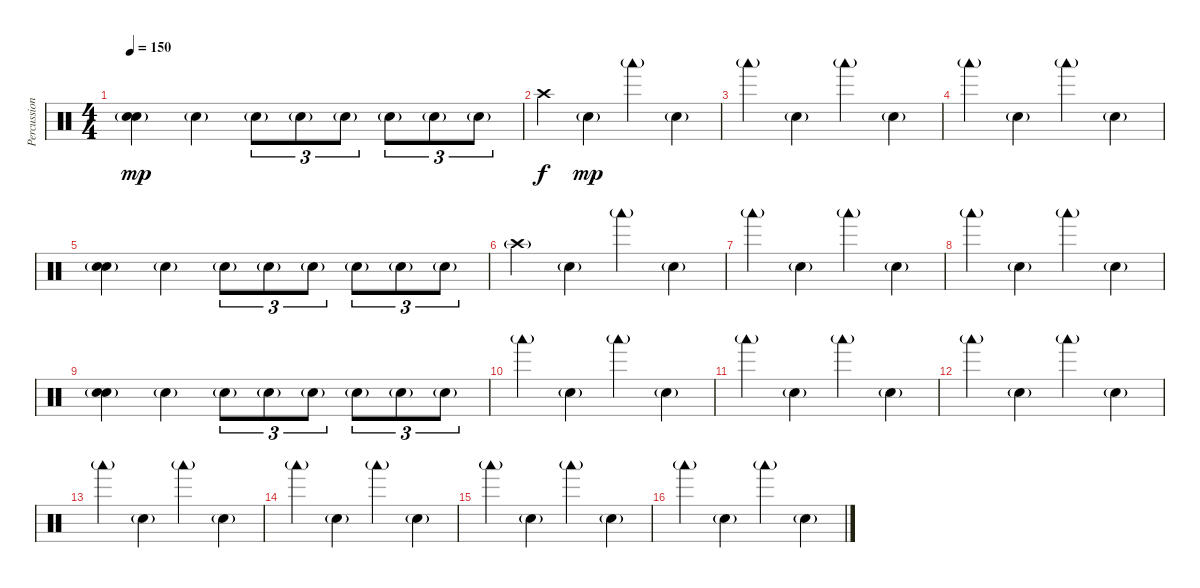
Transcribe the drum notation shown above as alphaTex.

\track ("Percussion" "Percussion") {instrument percussion}
\staff {score}
\articulation defaults
\ts (4 4)
\tempo 150
\clef neutral
\ks c
("Snare (hit) 2" "Snare (hit) 2"{g}).4{dy mp} "Snare (hit) 2"{g}.4 "Snare (hit) 2"{g}.8{tu (3 2)} "Snare (hit) 2"{g}.8{tu (3 2)} "Snare (hit) 2"{g}.8{tu (3 2)} "Snare (hit) 2"{g}.8{tu (3 2)} "Snare (hit) 2"{g}.8{tu (3 2)} "Snare (hit) 2"{g}.8{tu (3 2)} |
"Crash high (hit)".4{dy f} "Snare (hit) 2"{g}.4{dy mp} "Woodblock low (hit)"{g}.4 "Snare (hit) 2"{g}.4 |
"Woodblock low (hit)"{g}.4 "Snare (hit) 2"{g}.4 "Woodblock low (hit)"{g}.4 "Snare (hit) 2"{g}.4 |
"Woodblock low (hit)"{g}.4 "Snare (hit) 2"{g}.4 "Woodblock low (hit)"{g}.4 "Snare (hit) 2"{g}.4 |
("Snare (hit) 2" "Snare (hit) 2"{g}).4 "Snare (hit) 2"{g}.4 "Snare (hit) 2"{g}.8{tu (3 2)} "Snare (hit) 2"{g}.8{tu (3 2)} "Snare (hit) 2"{g}.8{tu (3 2)} "Snare (hit) 2"{g}.8{tu (3 2)} "Snare (hit) 2"{g}.8{tu (3 2)} "Snare (hit) 2"{g}.8{tu (3 2)} |
"Crash high (hit)"{g}.4 "Snare (hit) 2"{g}.4 "Woodblock low (hit)"{g}.4 "Snare (hit) 2"{g}.4 |
"Woodblock low (hit)"{g}.4 "Snare (hit) 2"{g}.4 "Woodblock low (hit)"{g}.4 "Snare (hit) 2"{g}.4 |
"Woodblock low (hit)"{g}.4 "Snare (hit) 2"{g}.4 "Woodblock low (hit)"{g}.4 "Snare (hit) 2"{g}.4 |
("Snare (hit) 2" "Snare (hit) 2"{g}).4 "Snare (hit) 2"{g}.4 "Snare (hit) 2"{g}.8{tu (3 2)} "Snare (hit) 2"{g}.8{tu (3 2)} "Snare (hit) 2"{g}.8{tu (3 2)} "Snare (hit) 2"{g}.8{tu (3 2)} "Snare (hit) 2"{g}.8{tu (3 2)} "Snare (hit) 2"{g}.8{tu (3 2)} |
"Woodblock low (hit)"{g}.4 "Snare (hit) 2"{g}.4 "Woodblock low (hit)"{g}.4 "Snare (hit) 2"{g}.4 |
"Woodblock low (hit)"{g}.4 "Snare (hit) 2"{g}.4 "Woodblock low (hit)"{g}.4 "Snare (hit) 2"{g}.4 |
"Woodblock low (hit)"{g}.4 "Snare (hit) 2"{g}.4 "Woodblock low (hit)"{g}.4 "Snare (hit) 2"{g}.4 |
"Woodblock low (hit)"{g}.4 "Snare (hit) 2"{g}.4 "Woodblock low (hit)"{g}.4 "Snare (hit) 2"{g}.4 |
"Woodblock low (hit)"{g}.4 "Snare (hit) 2"{g}.4 "Woodblock low (hit)"{g}.4 "Snare (hit) 2"{g}.4 |
"Woodblock low (hit)"{g}.4 "Snare (hit) 2"{g}.4 "Woodblock low (hit)"{g}.4 "Snare (hit) 2"{g}.4 |
"Woodblock low (hit)"{g}.4 "Snare (hit) 2"{g}.4 "Woodblock low (hit)"{g}.4 "Snare (hit) 2"{g}.4
